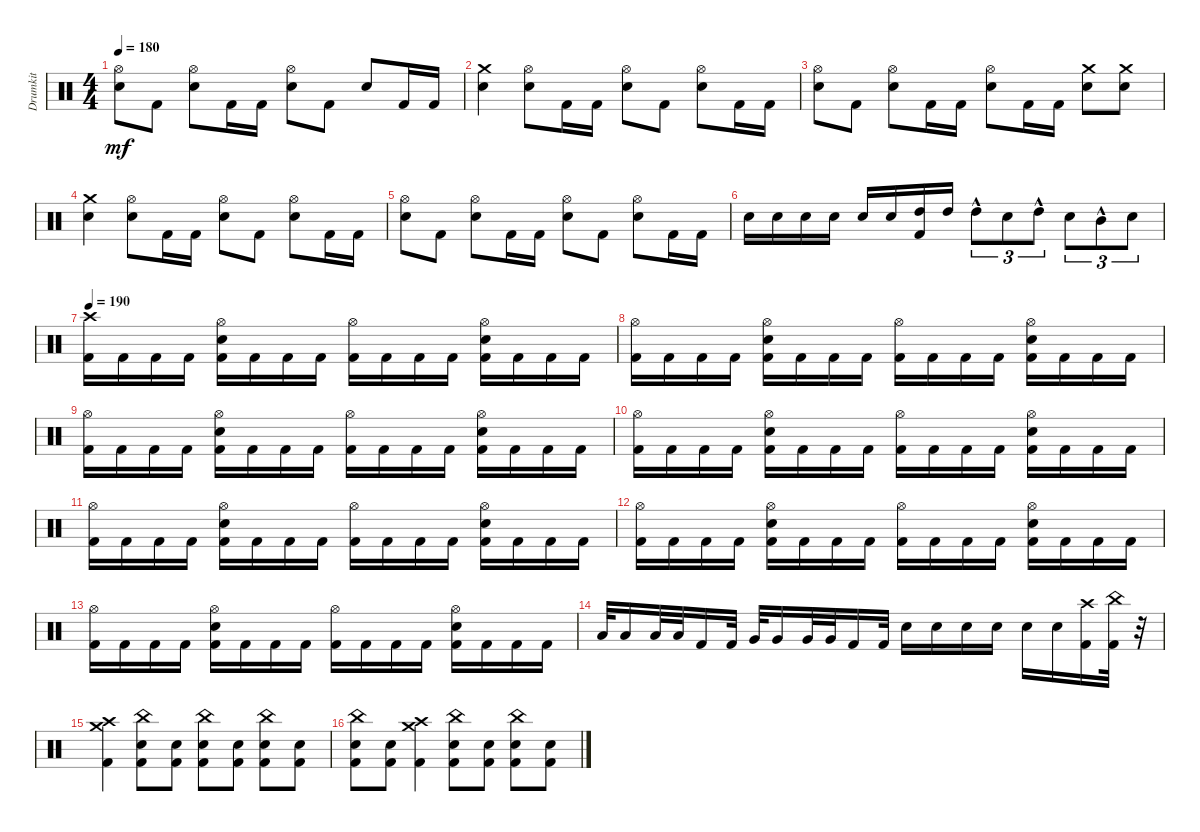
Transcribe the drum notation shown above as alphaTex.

\track ("Drumkit" "Drumkit") {instrument percussion}
\staff {score}
\articulation defaults
\ts (4 4)
\tempo 180
\clef neutral
\ks c
("Hi-Hat (open)" "Snare (hit) 2").8{dy mf} "Kick (hit) 2".8 ("Hi-Hat (open)" "Snare (hit) 2").8 "Kick (hit) 2".16 "Kick (hit) 2".16 ("Hi-Hat (open)" "Snare (hit) 2").8 "Kick (hit) 2".8 "Snare (hit) 2".8 "Kick (hit) 2".16 "Kick (hit) 2".16 |
("Crash medium (hit)" "Snare (hit) 2").4 ("Hi-Hat (open)" "Snare (hit) 2").8 "Kick (hit) 2".16 "Kick (hit) 2".16 ("Hi-Hat (open)" "Snare (hit) 2").8 "Kick (hit) 2".8 ("Hi-Hat (open)" "Snare (hit) 2").8 "Kick (hit) 2".16 "Kick (hit) 2".16 |
("Hi-Hat (open)" "Snare (hit) 2").8 "Kick (hit) 2".8 ("Hi-Hat (open)" "Snare (hit) 2").8 "Kick (hit) 2".16 "Kick (hit) 2".16 ("Hi-Hat (open)" "Snare (hit) 2").8 "Kick (hit) 2".16 "Kick (hit) 2".16 ("Crash medium (hit)" "Snare (hit) 2").8 ("Crash medium (hit)" "Snare (hit) 2").8 |
("Crash medium (hit)" "Snare (hit) 2").4 ("Hi-Hat (open)" "Snare (hit) 2").8 "Kick (hit) 2".16 "Kick (hit) 2".16 ("Hi-Hat (open)" "Snare (hit) 2").8 "Kick (hit) 2".8 ("Hi-Hat (open)" "Snare (hit) 2").8 "Kick (hit) 2".16 "Kick (hit) 2".16 |
("Hi-Hat (open)" "Snare (hit) 2").8 "Kick (hit) 2".8 ("Hi-Hat (open)" "Snare (hit) 2").8 "Kick (hit) 2".16 "Kick (hit) 2".16 ("Hi-Hat (open)" "Snare (hit) 2").8 "Kick (hit) 2".8 ("Hi-Hat (open)" "Snare (hit) 2").8 "Kick (hit) 2".16 "Kick (hit) 2".16 |
"Snare (hit) 2".16 "Snare (hit) 2".16 "Snare (hit) 2".16 "Snare (hit) 2".16 "Snare (hit) 2".16 "Snare (hit) 2".16 ("High Tom (hit)" "Kick (hit) 2").16 "High Tom (hit)".16 "High Tom (hit)"{hac}.8{tu (3 2)} "Snare (hit) 2".8{tu (3 2)} "High Tom (hit)"{hac}.8{tu (3 2)} "Snare (hit) 2".8{tu (3 2)} "Mid Tom (hit)"{hac}.8{tu (3 2)} "Snare (hit) 2".8{tu (3 2)} |
\tempo 190
("Crash high (hit)" "Kick (hit) 2").16 "Kick (hit) 2".16 "Kick (hit) 2".16 "Kick (hit) 2".16 ("Hi-Hat (open)" "Snare (hit) 2" "Kick (hit) 2").16 "Kick (hit) 2".16 "Kick (hit) 2".16 "Kick (hit) 2".16 ("Hi-Hat (open)" "Kick (hit) 2").16 "Kick (hit) 2".16 "Kick (hit) 2".16 "Kick (hit) 2".16 ("Hi-Hat (open)" "Snare (hit) 2" "Kick (hit) 2").16 "Kick (hit) 2".16 "Kick (hit) 2".16 "Kick (hit) 2".16 |
("Hi-Hat (open)" "Kick (hit) 2").16 "Kick (hit) 2".16 "Kick (hit) 2".16 "Kick (hit) 2".16 ("Hi-Hat (open)" "Snare (hit) 2" "Kick (hit) 2").16 "Kick (hit) 2".16 "Kick (hit) 2".16 "Kick (hit) 2".16 ("Hi-Hat (open)" "Kick (hit) 2").16 "Kick (hit) 2".16 "Kick (hit) 2".16 "Kick (hit) 2".16 ("Hi-Hat (open)" "Snare (hit) 2" "Kick (hit) 2").16 "Kick (hit) 2".16 "Kick (hit) 2".16 "Kick (hit) 2".16 |
("Hi-Hat (open)" "Kick (hit) 2").16 "Kick (hit) 2".16 "Kick (hit) 2".16 "Kick (hit) 2".16 ("Hi-Hat (open)" "Snare (hit) 2" "Kick (hit) 2").16 "Kick (hit) 2".16 "Kick (hit) 2".16 "Kick (hit) 2".16 ("Hi-Hat (open)" "Kick (hit) 2").16 "Kick (hit) 2".16 "Kick (hit) 2".16 "Kick (hit) 2".16 ("Hi-Hat (open)" "Snare (hit) 2" "Kick (hit) 2").16 "Kick (hit) 2".16 "Kick (hit) 2".16 "Kick (hit) 2".16 |
("Hi-Hat (open)" "Kick (hit) 2").16 "Kick (hit) 2".16 "Kick (hit) 2".16 "Kick (hit) 2".16 ("Hi-Hat (open)" "Snare (hit) 2" "Kick (hit) 2").16 "Kick (hit) 2".16 "Kick (hit) 2".16 "Kick (hit) 2".16 ("Hi-Hat (open)" "Kick (hit) 2").16 "Kick (hit) 2".16 "Kick (hit) 2".16 "Kick (hit) 2".16 ("Hi-Hat (open)" "Snare (hit) 2" "Kick (hit) 2").16 "Kick (hit) 2".16 "Kick (hit) 2".16 "Kick (hit) 2".16 |
("Hi-Hat (open)" "Kick (hit) 2").16 "Kick (hit) 2".16 "Kick (hit) 2".16 "Kick (hit) 2".16 ("Hi-Hat (open)" "Snare (hit) 2" "Kick (hit) 2").16 "Kick (hit) 2".16 "Kick (hit) 2".16 "Kick (hit) 2".16 ("Hi-Hat (open)" "Kick (hit) 2").16 "Kick (hit) 2".16 "Kick (hit) 2".16 "Kick (hit) 2".16 ("Hi-Hat (open)" "Snare (hit) 2" "Kick (hit) 2").16 "Kick (hit) 2".16 "Kick (hit) 2".16 "Kick (hit) 2".16 |
("Hi-Hat (open)" "Kick (hit) 2").16 "Kick (hit) 2".16 "Kick (hit) 2".16 "Kick (hit) 2".16 ("Hi-Hat (open)" "Snare (hit) 2" "Kick (hit) 2").16 "Kick (hit) 2".16 "Kick (hit) 2".16 "Kick (hit) 2".16 ("Hi-Hat (open)" "Kick (hit) 2").16 "Kick (hit) 2".16 "Kick (hit) 2".16 "Kick (hit) 2".16 ("Hi-Hat (open)" "Snare (hit) 2" "Kick (hit) 2").16 "Kick (hit) 2".16 "Kick (hit) 2".16 "Kick (hit) 2".16 |
("Hi-Hat (open)" "Kick (hit) 2").16 "Kick (hit) 2".16 "Kick (hit) 2".16 "Kick (hit) 2".16 ("Hi-Hat (open)" "Snare (hit) 2" "Kick (hit) 2").16 "Kick (hit) 2".16 "Kick (hit) 2".16 "Kick (hit) 2".16 ("Hi-Hat (open)" "Kick (hit) 2").16 "Kick (hit) 2".16 "Kick (hit) 2".16 "Kick (hit) 2".16 ("Hi-Hat (open)" "Snare (hit) 2" "Kick (hit) 2").16 "Kick (hit) 2".16 "Kick (hit) 2".16 "Kick (hit) 2".16 |
"Low Tom (hit)".32 "Low Tom (hit)".16 "Low Tom (hit)".32 "Low Tom (hit)".32 "Kick (hit) 2".16 "Kick (hit) 2".32 "Very Low Tom (hit)".32 "Very Low Tom (hit)".16 "Very Low Tom (hit)".32 "Very Low Tom (hit)".32 "Kick (hit) 2".16 "Kick (hit) 2".32 "Snare (hit) 2".16 "Snare (hit) 2".16 "Snare (hit) 2".16 "Snare (hit) 2".16 "Snare (hit) 2".16 "Snare (hit) 2".16 ("Crash high (hit)" "Kick (hit) 2").16 ("China (hit)" "Kick (hit) 2").32 r.32 |
("Crash high (hit)" "Crash medium (hit)" "Kick (hit) 2").4 ("China (hit)" "Snare (hit) 2" "Kick (hit) 2").8 ("Snare (hit) 2" "Kick (hit) 2").8 ("China (hit)" "Snare (hit) 2" "Kick (hit) 2").8 ("Snare (hit) 2" "Kick (hit) 2").8 ("China (hit)" "Snare (hit) 2" "Kick (hit) 2").8 ("Snare (hit) 2" "Kick (hit) 2").8 |
("China (hit)" "Snare (hit) 2" "Kick (hit) 2").8 ("Snare (hit) 2" "Kick (hit) 2").8 ("Crash high (hit)" "Crash medium (hit)" "Kick (hit) 2").4 ("China (hit)" "Snare (hit) 2" "Kick (hit) 2").8 ("Snare (hit) 2" "Kick (hit) 2").8 ("China (hit)" "Snare (hit) 2" "Kick (hit) 2").8 ("Snare (hit) 2" "Kick (hit) 2").8
